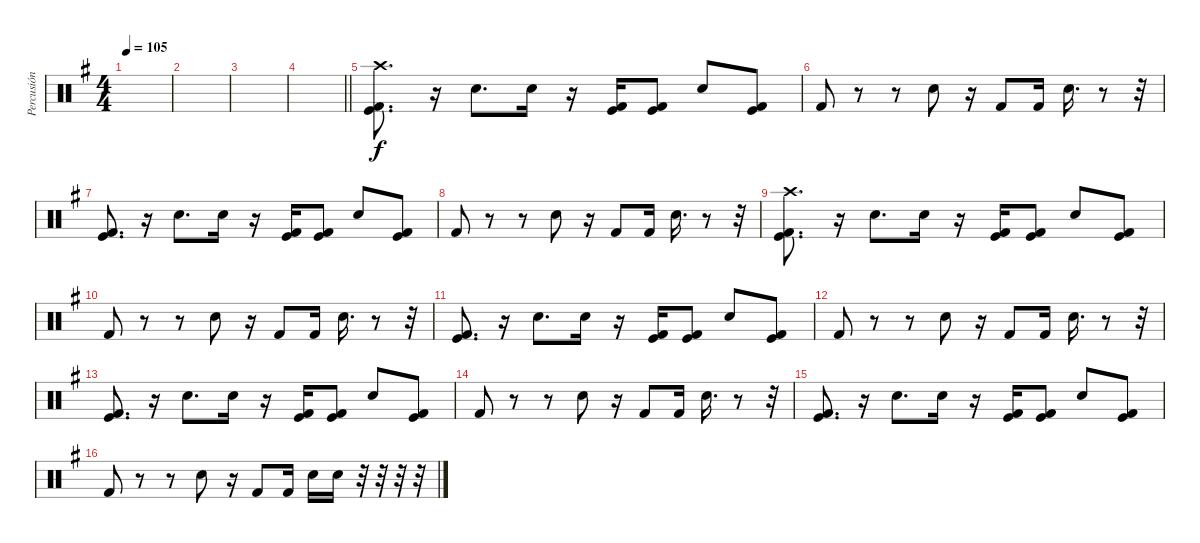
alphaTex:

\track ("Percusión" "Percusión") {instrument percussion}
\staff {score}
\articulation defaults
\ts (4 4)
\tempo 105
\clef neutral
\ks g
|
|
|
\barLineRight lightlight
|
("Crash high (hit)" "Kick (hit)" "Kick (hit) 2").8{d} r.16 "Electric Snare (hit)".8{d} "Electric Snare (hit)".16 r.16 ("Kick (hit)" "Kick (hit) 2").16 ("Kick (hit)" "Kick (hit) 2").8 "Electric Snare (hit)".8 ("Kick (hit)" "Kick (hit) 2").8 |
"Kick (hit) 2".8 r.8 r.8 "Electric Snare (hit)".8 r.16 "Kick (hit) 2".8 "Kick (hit) 2".16 "Electric Snare (hit)".16{d} r.8 r.32 |
("Kick (hit)" "Kick (hit) 2").8{d} r.16 "Electric Snare (hit)".8{d} "Electric Snare (hit)".16 r.16 ("Kick (hit)" "Kick (hit) 2").16 ("Kick (hit)" "Kick (hit) 2").8 "Electric Snare (hit)".8 ("Kick (hit)" "Kick (hit) 2").8 |
"Kick (hit) 2".8 r.8 r.8 "Electric Snare (hit)".8 r.16 "Kick (hit) 2".8 "Kick (hit) 2".16 "Electric Snare (hit)".16{d} r.8 r.32 |
("Crash high (hit)" "Kick (hit)" "Kick (hit) 2").8{d} r.16 "Electric Snare (hit)".8{d} "Electric Snare (hit)".16 r.16 ("Kick (hit)" "Kick (hit) 2").16 ("Kick (hit)" "Kick (hit) 2").8 "Electric Snare (hit)".8 ("Kick (hit)" "Kick (hit) 2").8 |
"Kick (hit) 2".8 r.8 r.8 "Electric Snare (hit)".8 r.16 "Kick (hit) 2".8 "Kick (hit) 2".16 "Electric Snare (hit)".16{d} r.8 r.32 |
("Kick (hit)" "Kick (hit) 2").8{d} r.16 "Electric Snare (hit)".8{d} "Electric Snare (hit)".16 r.16 ("Kick (hit)" "Kick (hit) 2").16 ("Kick (hit)" "Kick (hit) 2").8 "Electric Snare (hit)".8 ("Kick (hit)" "Kick (hit) 2").8 |
"Kick (hit) 2".8 r.8 r.8 "Electric Snare (hit)".8 r.16 "Kick (hit) 2".8 "Kick (hit) 2".16 "Electric Snare (hit)".16{d} r.8 r.32 |
("Kick (hit)" "Kick (hit) 2").8{d} r.16 "Electric Snare (hit)".8{d} "Electric Snare (hit)".16 r.16 ("Kick (hit)" "Kick (hit) 2").16 ("Kick (hit)" "Kick (hit) 2").8 "Electric Snare (hit)".8 ("Kick (hit)" "Kick (hit) 2").8 |
"Kick (hit) 2".8 r.8 r.8 "Electric Snare (hit)".8 r.16 "Kick (hit) 2".8 "Kick (hit) 2".16 "Electric Snare (hit)".16{d} r.8 r.32 |
("Kick (hit)" "Kick (hit) 2").8{d} r.16 "Electric Snare (hit)".8{d} "Electric Snare (hit)".16 r.16 ("Kick (hit)" "Kick (hit) 2").16 ("Kick (hit)" "Kick (hit) 2").8 "Electric Snare (hit)".8 ("Kick (hit)" "Kick (hit) 2").8 |
"Kick (hit) 2".8 r.8 r.8 "Electric Snare (hit)".8 r.16 "Kick (hit) 2".8 "Kick (hit) 2".16 "Electric Snare (hit)".16 "Electric Snare (hit)".16 r.32 r.32 r.32 r.32
